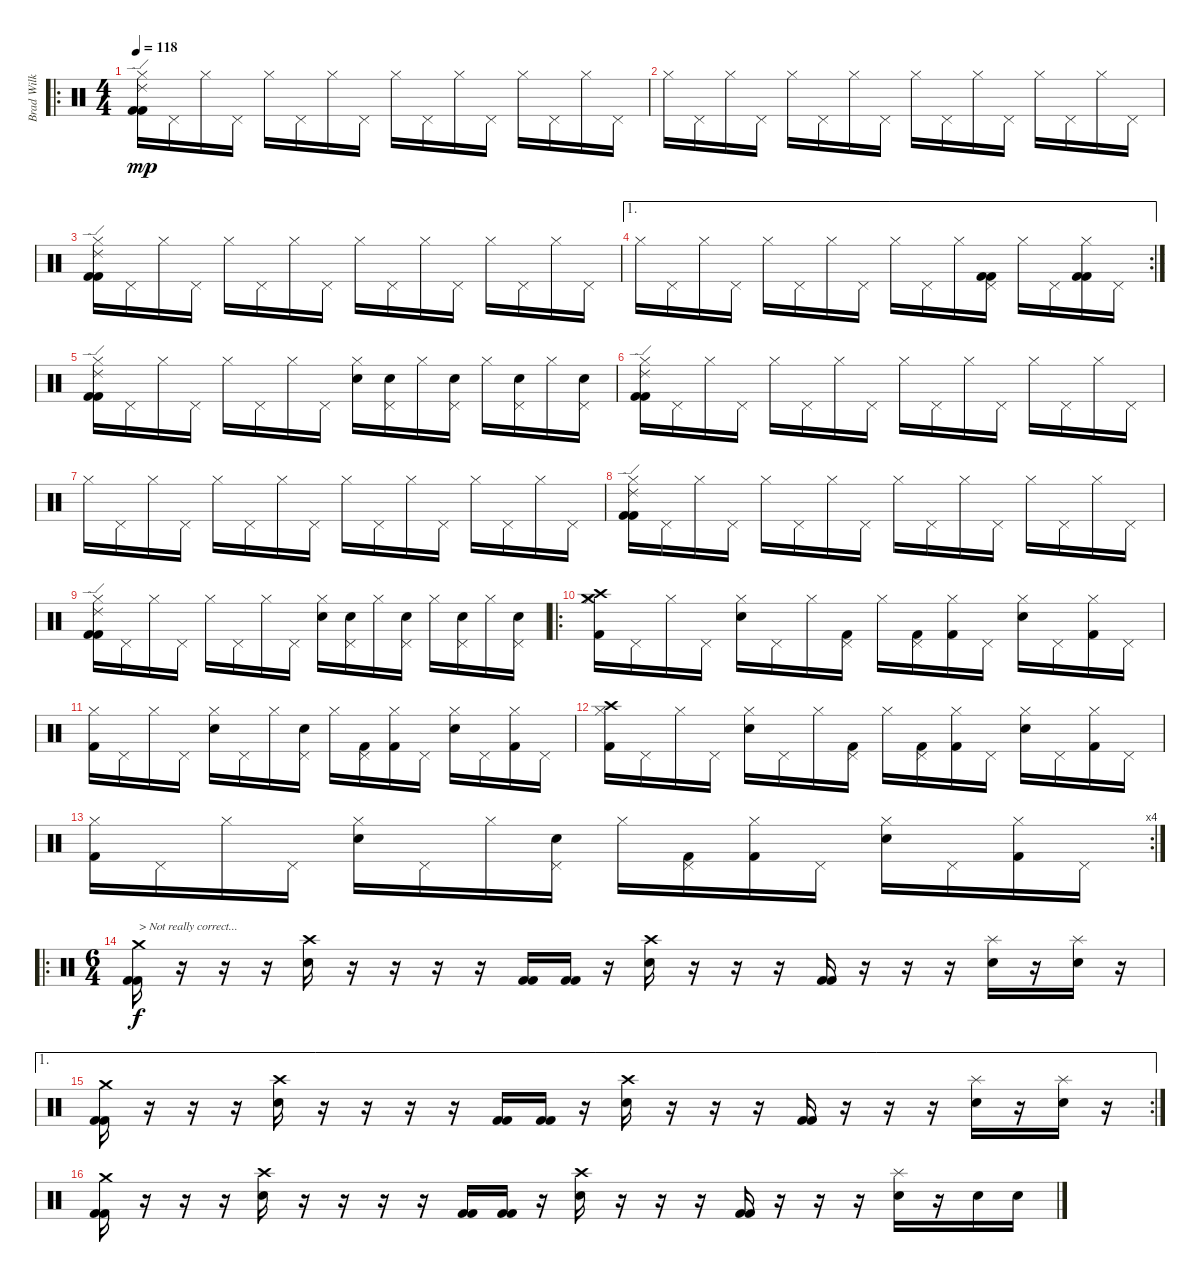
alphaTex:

\track ("Brad Wilk - Drums" "Brad Wilk ") {instrument percussion}
\staff {score}
\articulation defaults
\ro
\ts (4 4)
\tempo 118
\clef neutral
\ks c
("Kick (hit) 2" "Kick (hit) 2" "Ride (edge) 2" "Hi-Hat (closed)").16{dy mp} "Pedal Hi-Hat (hit)".16 "Hi-Hat (closed)".16 "Pedal Hi-Hat (hit)".16 "Hi-Hat (closed)".16 "Pedal Hi-Hat (hit)".16 "Hi-Hat (closed)".16 "Pedal Hi-Hat (hit)".16 "Hi-Hat (closed)".16 "Pedal Hi-Hat (hit)".16 "Hi-Hat (closed)".16 "Pedal Hi-Hat (hit)".16 "Hi-Hat (closed)".16 "Pedal Hi-Hat (hit)".16 "Hi-Hat (closed)".16 "Pedal Hi-Hat (hit)".16 |
"Hi-Hat (closed)".16 "Pedal Hi-Hat (hit)".16 "Hi-Hat (closed)".16 "Pedal Hi-Hat (hit)".16 "Hi-Hat (closed)".16 "Pedal Hi-Hat (hit)".16 "Hi-Hat (closed)".16 "Pedal Hi-Hat (hit)".16 "Hi-Hat (closed)".16 "Pedal Hi-Hat (hit)".16 "Hi-Hat (closed)".16 "Pedal Hi-Hat (hit)".16 "Hi-Hat (closed)".16 "Pedal Hi-Hat (hit)".16 "Hi-Hat (closed)".16 "Pedal Hi-Hat (hit)".16 |
("Kick (hit) 2" "Kick (hit) 2" "Ride (edge) 2" "Hi-Hat (closed)").16 "Pedal Hi-Hat (hit)".16 "Hi-Hat (closed)".16 "Pedal Hi-Hat (hit)".16 "Hi-Hat (closed)".16 "Pedal Hi-Hat (hit)".16 "Hi-Hat (closed)".16 "Pedal Hi-Hat (hit)".16 "Hi-Hat (closed)".16 "Pedal Hi-Hat (hit)".16 "Hi-Hat (closed)".16 "Pedal Hi-Hat (hit)".16 "Hi-Hat (closed)".16 "Pedal Hi-Hat (hit)".16 "Hi-Hat (closed)".16 "Pedal Hi-Hat (hit)".16 |
\ae 1
\rc 2 "Hi-Hat (closed)".16 "Pedal Hi-Hat (hit)".16 "Hi-Hat (closed)".16 "Pedal Hi-Hat (hit)".16 "Hi-Hat (closed)".16 "Pedal Hi-Hat (hit)".16 "Hi-Hat (closed)".16 "Pedal Hi-Hat (hit)".16 "Hi-Hat (closed)".16 "Pedal Hi-Hat (hit)".16 "Hi-Hat (closed)".16
("Kick (hit) 2" "Kick (hit) 2" "Pedal Hi-Hat (hit)").16 "Hi-Hat (closed)".16 "Pedal Hi-Hat (hit)".16 ("Kick (hit) 2" "Kick (hit) 2" "Hi-Hat (closed)").16 "Pedal Hi-Hat (hit)".16 |
("Kick (hit) 2" "Kick (hit) 2" "Ride (edge) 2" "Hi-Hat (closed)").16 "Pedal Hi-Hat (hit)".16 "Hi-Hat (closed)".16 "Pedal Hi-Hat (hit)".16 "Hi-Hat (closed)".16 "Pedal Hi-Hat (hit)".16 "Hi-Hat (closed)".16 "Pedal Hi-Hat (hit)".16 ("Electric Snare (hit)" "Hi-Hat (closed)").16 ("Electric Snare (hit)" "Pedal Hi-Hat (hit)").16 "Hi-Hat (closed)".16 ("Electric Snare (hit)" "Pedal Hi-Hat (hit)").16 "Hi-Hat (closed)".16 ("Electric Snare (hit)" "Pedal Hi-Hat (hit)").16 "Hi-Hat (closed)".16 ("Electric Snare (hit)" "Pedal Hi-Hat (hit)").16 |
("Kick (hit) 2" "Kick (hit) 2" "Ride (edge) 2" "Hi-Hat (closed)").16 "Pedal Hi-Hat (hit)".16 "Hi-Hat (closed)".16 "Pedal Hi-Hat (hit)".16 "Hi-Hat (closed)".16 "Pedal Hi-Hat (hit)".16 "Hi-Hat (closed)".16 "Pedal Hi-Hat (hit)".16 "Hi-Hat (closed)".16 "Pedal Hi-Hat (hit)".16 "Hi-Hat (closed)".16 "Pedal Hi-Hat (hit)".16 "Hi-Hat (closed)".16 "Pedal Hi-Hat (hit)".16 "Hi-Hat (closed)".16 "Pedal Hi-Hat (hit)".16 |
"Hi-Hat (closed)".16 "Pedal Hi-Hat (hit)".16 "Hi-Hat (closed)".16 "Pedal Hi-Hat (hit)".16 "Hi-Hat (closed)".16 "Pedal Hi-Hat (hit)".16 "Hi-Hat (closed)".16 "Pedal Hi-Hat (hit)".16 "Hi-Hat (closed)".16 "Pedal Hi-Hat (hit)".16 "Hi-Hat (closed)".16 "Pedal Hi-Hat (hit)".16 "Hi-Hat (closed)".16 "Pedal Hi-Hat (hit)".16 "Hi-Hat (closed)".16 "Pedal Hi-Hat (hit)".16 |
("Kick (hit) 2" "Kick (hit) 2" "Ride (edge) 2" "Hi-Hat (closed)").16 "Pedal Hi-Hat (hit)".16 "Hi-Hat (closed)".16 "Pedal Hi-Hat (hit)".16 "Hi-Hat (closed)".16 "Pedal Hi-Hat (hit)".16 "Hi-Hat (closed)".16 "Pedal Hi-Hat (hit)".16 "Hi-Hat (closed)".16 "Pedal Hi-Hat (hit)".16 "Hi-Hat (closed)".16 "Pedal Hi-Hat (hit)".16 "Hi-Hat (closed)".16 "Pedal Hi-Hat (hit)".16 "Hi-Hat (closed)".16 "Pedal Hi-Hat (hit)".16 |
("Kick (hit) 2" "Kick (hit) 2" "Ride (edge) 2" "Hi-Hat (closed)").16 "Pedal Hi-Hat (hit)".16 "Hi-Hat (closed)".16 "Pedal Hi-Hat (hit)".16 "Hi-Hat (closed)".16 "Pedal Hi-Hat (hit)".16 "Hi-Hat (closed)".16 "Pedal Hi-Hat (hit)".16 ("Electric Snare (hit)" "Hi-Hat (closed)").16 ("Electric Snare (hit)" "Pedal Hi-Hat (hit)").16 "Hi-Hat (closed)".16 ("Electric Snare (hit)" "Pedal Hi-Hat (hit)").16 "Hi-Hat (closed)".16 ("Electric Snare (hit)" "Pedal Hi-Hat (hit)").16 "Hi-Hat (closed)".16 ("Electric Snare (hit)" "Pedal Hi-Hat (hit)").16 |
\ro
("Kick (hit) 2" "Crash medium (hit)" "Crash high (hit)" "Hi-Hat (closed)").16 "Pedal Hi-Hat (hit)".16 "Hi-Hat (closed)".16 "Pedal Hi-Hat (hit)".16 ("Electric Snare (hit)" "Hi-Hat (closed)").16 "Pedal Hi-Hat (hit)".16 "Hi-Hat (closed)".16 ("Kick (hit) 2" "Pedal Hi-Hat (hit)").16 "Hi-Hat (closed)".16 ("Kick (hit) 2" "Pedal Hi-Hat (hit)").16 ("Kick (hit) 2" "Hi-Hat (closed)").16 "Pedal Hi-Hat (hit)".16 ("Electric Snare (hit)" "Hi-Hat (closed)").16 "Pedal Hi-Hat (hit)".16 ("Kick (hit) 2" "Hi-Hat (closed)").16 "Pedal Hi-Hat (hit)".16 |
("Kick (hit) 2" "Hi-Hat (closed)").16 "Pedal Hi-Hat (hit)".16 "Hi-Hat (closed)".16 "Pedal Hi-Hat (hit)".16 ("Electric Snare (hit)" "Hi-Hat (closed)").16 "Pedal Hi-Hat (hit)".16 "Hi-Hat (closed)".16 ("Electric Snare (hit)" "Pedal Hi-Hat (hit)").16 "Hi-Hat (closed)".16 ("Kick (hit) 2" "Pedal Hi-Hat (hit)").16 ("Kick (hit) 2" "Hi-Hat (closed)").16 "Pedal Hi-Hat (hit)".16 ("Electric Snare (hit)" "Hi-Hat (closed)").16 "Pedal Hi-Hat (hit)".16 ("Kick (hit) 2" "Hi-Hat (closed)").16 "Pedal Hi-Hat (hit)".16 |
("Kick (hit) 2" "Crash high (hit)" "Hi-Hat (closed)").16 "Pedal Hi-Hat (hit)".16 "Hi-Hat (closed)".16 "Pedal Hi-Hat (hit)".16 ("Electric Snare (hit)" "Hi-Hat (closed)").16 "Pedal Hi-Hat (hit)".16 "Hi-Hat (closed)".16 ("Kick (hit) 2" "Pedal Hi-Hat (hit)").16 "Hi-Hat (closed)".16 ("Kick (hit) 2" "Pedal Hi-Hat (hit)").16 ("Kick (hit) 2" "Hi-Hat (closed)").16 "Pedal Hi-Hat (hit)".16 ("Electric Snare (hit)" "Hi-Hat (closed)").16 "Pedal Hi-Hat (hit)".16 ("Kick (hit) 2" "Hi-Hat (closed)").16 "Pedal Hi-Hat (hit)".16 |
\rc 4
("Kick (hit) 2" "Hi-Hat (closed)").16 "Pedal Hi-Hat (hit)".16 "Hi-Hat (closed)".16 "Pedal Hi-Hat (hit)".16 ("Electric Snare (hit)" "Hi-Hat (closed)").16 "Pedal Hi-Hat (hit)".16 "Hi-Hat (closed)".16 ("Electric Snare (hit)" "Pedal Hi-Hat (hit)").16 "Hi-Hat (closed)".16 ("Kick (hit) 2" "Pedal Hi-Hat (hit)").16 ("Kick (hit) 2" "Hi-Hat (closed)").16 "Pedal Hi-Hat (hit)".16 ("Electric Snare (hit)" "Hi-Hat (closed)").16 "Pedal Hi-Hat (hit)".16 ("Kick (hit) 2" "Hi-Hat (closed)").16 "Pedal Hi-Hat (hit)".16 |
\ro
\ts (6 4)
("Kick (hit) 2" "Kick (hit) 2" "Crash medium (hit)").16{txt "> Not really correct..." dy f} r.16 r.16 r.16 ("Electric Snare (hit)" "Crash high (hit)").16 r.16 r.16 r.16 r.16 ("Kick (hit) 2" "Kick (hit) 2").16 ("Kick (hit) 2" "Kick (hit) 2").16 r.16 ("Electric Snare (hit)" "Crash high (hit)").16 r.16 r.16 r.16 ("Kick (hit) 2" "Kick (hit) 2").16 r.16 r.16 r.16 ("Electric Snare (hit)" "Splash (hit)").16 r.16 ("Electric Snare (hit)" "Splash (hit)").16 r.16 |
\ae 1
\rc 2
("Kick (hit) 2" "Kick (hit) 2" "Crash medium (hit)").16 r.16 r.16 r.16 ("Electric Snare (hit)" "Crash high (hit)").16 r.16 r.16 r.16 r.16 ("Kick (hit) 2" "Kick (hit) 2").16 ("Kick (hit) 2" "Kick (hit) 2").16 r.16 ("Electric Snare (hit)" "Crash high (hit)").16 r.16 r.16 r.16 ("Kick (hit) 2" "Kick (hit) 2").16 r.16 r.16 r.16 ("Electric Snare (hit)" "Splash (hit)").16 r.16 ("Electric Snare (hit)" "Splash (hit)").16 r.16 |
("Kick (hit) 2" "Kick (hit) 2" "Crash medium (hit)").16 r.16 r.16 r.16 ("Electric Snare (hit)" "Crash high (hit)").16 r.16 r.16 r.16 r.16 ("Kick (hit) 2" "Kick (hit) 2").16 ("Kick (hit) 2" "Kick (hit) 2").16 r.16 ("Electric Snare (hit)" "Crash high (hit)").16 r.16 r.16 r.16 ("Kick (hit) 2" "Kick (hit) 2").16 r.16 r.16 r.16 ("Electric Snare (hit)" "Splash (hit)").16 r.16 "Electric Snare (hit)".16 "Electric Snare (hit)".16
